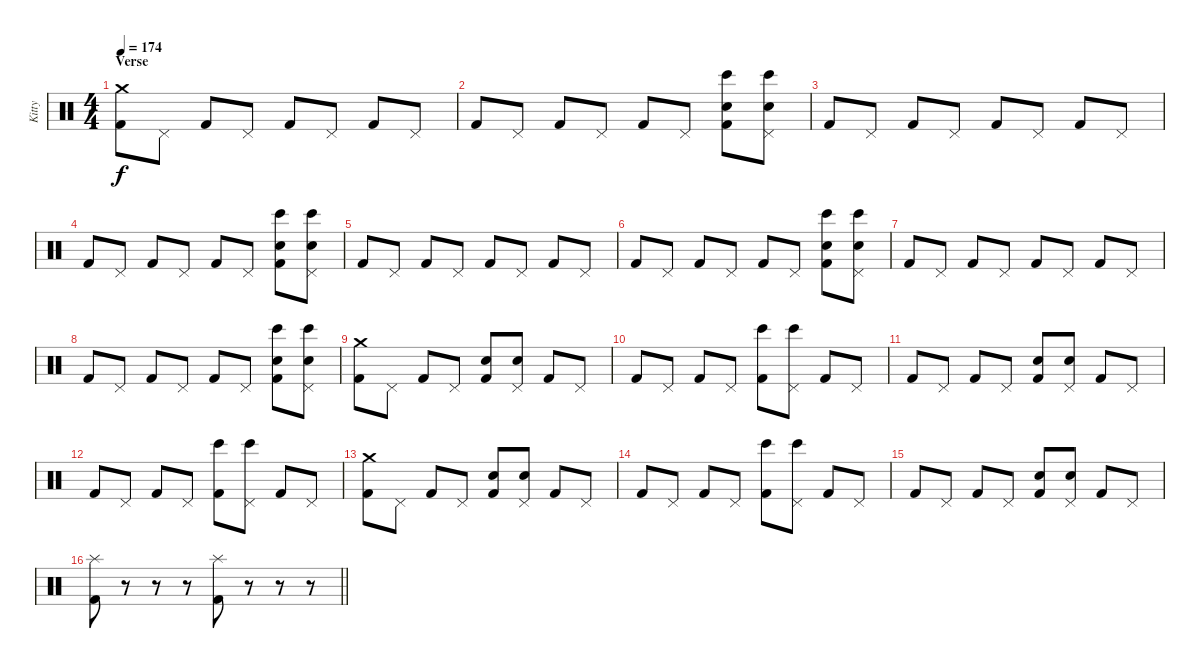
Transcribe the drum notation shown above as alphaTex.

\track ("Kitty" "Kitty") {instrument percussion}
\staff {score}
\articulation defaults
\ts (4 4)
\section ("" "Verse")
\tempo 174
\clef neutral
\ks c
("Crash medium (hit)" "Kick (hit) 2").8{dy f} "Pedal Hi-Hat (hit)".8 "Kick (hit) 2".8 "Pedal Hi-Hat (hit)".8 "Kick (hit) 2".8 "Pedal Hi-Hat (hit)".8 "Kick (hit) 2".8 "Pedal Hi-Hat (hit)".8 |
"Kick (hit) 2".8 "Pedal Hi-Hat (hit)".8 "Kick (hit) 2".8 "Pedal Hi-Hat (hit)".8 "Kick (hit) 2".8 "Pedal Hi-Hat (hit)".8 ("Hand Clap (hit)" "Bongo High (hit)" "Kick (hit) 2").8 ("Hand Clap (hit)" "Bongo High (hit)" "Pedal Hi-Hat (hit)").8 |
"Kick (hit) 2".8 "Pedal Hi-Hat (hit)".8 "Kick (hit) 2".8 "Pedal Hi-Hat (hit)".8 "Kick (hit) 2".8 "Pedal Hi-Hat (hit)".8 "Kick (hit) 2".8 "Pedal Hi-Hat (hit)".8 |
"Kick (hit) 2".8 "Pedal Hi-Hat (hit)".8 "Kick (hit) 2".8 "Pedal Hi-Hat (hit)".8 "Kick (hit) 2".8 "Pedal Hi-Hat (hit)".8 ("Hand Clap (hit)" "Bongo High (hit)" "Kick (hit) 2").8 ("Hand Clap (hit)" "Bongo High (hit)" "Pedal Hi-Hat (hit)").8 |
"Kick (hit) 2".8 "Pedal Hi-Hat (hit)".8 "Kick (hit) 2".8 "Pedal Hi-Hat (hit)".8 "Kick (hit) 2".8 "Pedal Hi-Hat (hit)".8 "Kick (hit) 2".8 "Pedal Hi-Hat (hit)".8 |
"Kick (hit) 2".8 "Pedal Hi-Hat (hit)".8 "Kick (hit) 2".8 "Pedal Hi-Hat (hit)".8 "Kick (hit) 2".8 "Pedal Hi-Hat (hit)".8 ("Hand Clap (hit)" "Bongo High (hit)" "Kick (hit) 2").8 ("Hand Clap (hit)" "Bongo High (hit)" "Pedal Hi-Hat (hit)").8 |
"Kick (hit) 2".8 "Pedal Hi-Hat (hit)".8 "Kick (hit) 2".8 "Pedal Hi-Hat (hit)".8 "Kick (hit) 2".8 "Pedal Hi-Hat (hit)".8 "Kick (hit) 2".8 "Pedal Hi-Hat (hit)".8 |
"Kick (hit) 2".8 "Pedal Hi-Hat (hit)".8 "Kick (hit) 2".8 "Pedal Hi-Hat (hit)".8 "Kick (hit) 2".8 "Pedal Hi-Hat (hit)".8 ("Hand Clap (hit)" "Bongo High (hit)" "Kick (hit) 2").8 ("Hand Clap (hit)" "Bongo High (hit)" "Pedal Hi-Hat (hit)").8 |
("Crash medium (hit)" "Kick (hit) 2").8 "Pedal Hi-Hat (hit)".8 "Kick (hit) 2".8 "Pedal Hi-Hat (hit)".8 ("Hand Clap (hit)" "Kick (hit) 2").8 ("Hand Clap (hit)" "Pedal Hi-Hat (hit)").8 "Kick (hit) 2".8 "Pedal Hi-Hat (hit)".8 |
"Kick (hit) 2".8 "Pedal Hi-Hat (hit)".8 "Kick (hit) 2".8 "Pedal Hi-Hat (hit)".8 ("Bongo High (hit)" "Kick (hit) 2").8 ("Bongo High (hit)" "Pedal Hi-Hat (hit)").8 "Kick (hit) 2".8 "Pedal Hi-Hat (hit)".8 |
"Kick (hit) 2".8 "Pedal Hi-Hat (hit)".8 "Kick (hit) 2".8 "Pedal Hi-Hat (hit)".8 ("Hand Clap (hit)" "Kick (hit) 2").8 ("Hand Clap (hit)" "Pedal Hi-Hat (hit)").8 "Kick (hit) 2".8 "Pedal Hi-Hat (hit)".8 |
"Kick (hit) 2".8 "Pedal Hi-Hat (hit)".8 "Kick (hit) 2".8 "Pedal Hi-Hat (hit)".8 ("Bongo High (hit)" "Kick (hit) 2").8 ("Bongo High (hit)" "Pedal Hi-Hat (hit)").8 "Kick (hit) 2".8 "Pedal Hi-Hat (hit)".8 |
("Crash medium (hit)" "Kick (hit) 2").8 "Pedal Hi-Hat (hit)".8 "Kick (hit) 2".8 "Pedal Hi-Hat (hit)".8 ("Hand Clap (hit)" "Kick (hit) 2").8 ("Hand Clap (hit)" "Pedal Hi-Hat (hit)").8 "Kick (hit) 2".8 "Pedal Hi-Hat (hit)".8 |
"Kick (hit) 2".8 "Pedal Hi-Hat (hit)".8 "Kick (hit) 2".8 "Pedal Hi-Hat (hit)".8 ("Bongo High (hit)" "Kick (hit) 2").8 ("Bongo High (hit)" "Pedal Hi-Hat (hit)").8 "Kick (hit) 2".8 "Pedal Hi-Hat (hit)".8 |
"Kick (hit) 2".8 "Pedal Hi-Hat (hit)".8 "Kick (hit) 2".8 "Pedal Hi-Hat (hit)".8 ("Hand Clap (hit)" "Kick (hit) 2").8 ("Hand Clap (hit)" "Pedal Hi-Hat (hit)").8 "Kick (hit) 2".8 "Pedal Hi-Hat (hit)".8 |
\barLineRight lightlight
("Splash (hit)" "Kick (hit) 2").8 r.8 r.8 r.8 ("Splash (hit)" "Kick (hit) 2").8 r.8 r.8 r.8
